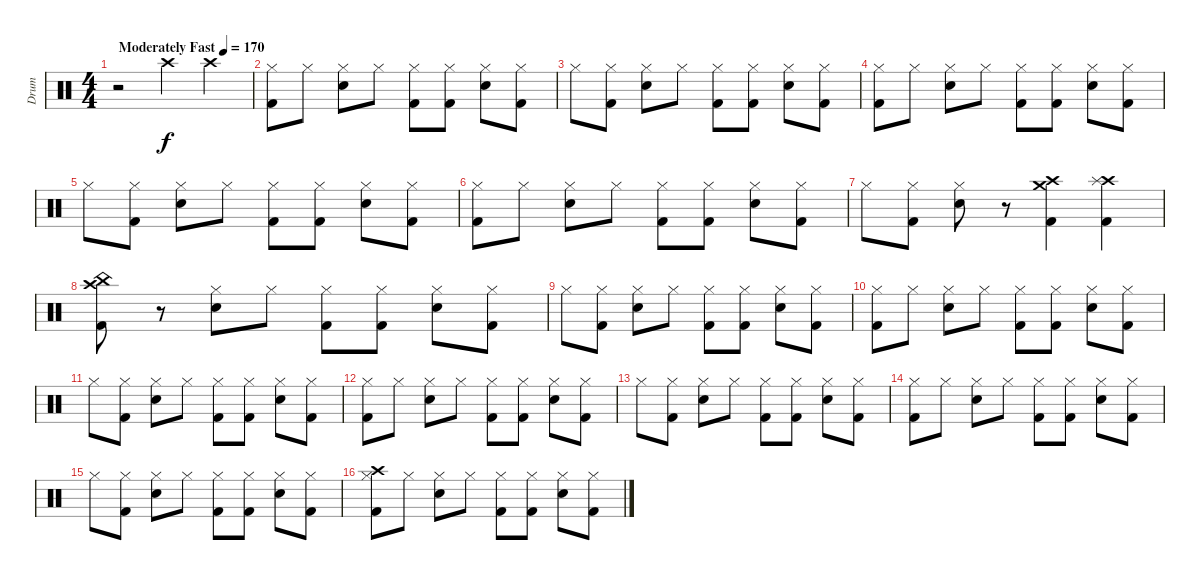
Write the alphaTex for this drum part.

\track ("Drum" "Drum") {instrument percussion}
\staff {score}
\articulation defaults
\ts (4 4)
\tempo (170 "Moderately Fast")
\clef neutral
\ks c
r.2{dy f} "Crash high (hit)".4 "Crash high (hit)".4 |
("Hi-Hat (closed)" "Kick (hit) 2").8 "Hi-Hat (closed)".8 ("Hi-Hat (closed)" "Electric Snare (hit)").8 "Hi-Hat (closed)".8 ("Hi-Hat (closed)" "Kick (hit) 2").8 ("Hi-Hat (closed)" "Kick (hit) 2").8 ("Hi-Hat (closed)" "Electric Snare (hit)").8 ("Hi-Hat (closed)" "Kick (hit) 2").8 |
"Hi-Hat (closed)".8 ("Hi-Hat (closed)" "Kick (hit) 2").8 ("Hi-Hat (closed)" "Electric Snare (hit)").8 "Hi-Hat (closed)".8 ("Hi-Hat (closed)" "Kick (hit) 2").8 ("Hi-Hat (closed)" "Kick (hit) 2").8 ("Hi-Hat (closed)" "Electric Snare (hit)").8 ("Hi-Hat (closed)" "Kick (hit) 2").8 |
("Hi-Hat (closed)" "Kick (hit) 2").8 "Hi-Hat (closed)".8 ("Hi-Hat (closed)" "Electric Snare (hit)").8 "Hi-Hat (closed)".8 ("Hi-Hat (closed)" "Kick (hit) 2").8 ("Hi-Hat (closed)" "Kick (hit) 2").8 ("Hi-Hat (closed)" "Electric Snare (hit)").8 ("Hi-Hat (closed)" "Kick (hit) 2").8 |
"Hi-Hat (closed)".8 ("Hi-Hat (closed)" "Kick (hit) 2").8 ("Hi-Hat (closed)" "Electric Snare (hit)").8 "Hi-Hat (closed)".8 ("Hi-Hat (closed)" "Kick (hit) 2").8 ("Hi-Hat (closed)" "Kick (hit) 2").8 ("Hi-Hat (closed)" "Electric Snare (hit)").8 ("Hi-Hat (closed)" "Kick (hit) 2").8 |
("Hi-Hat (closed)" "Kick (hit) 2").8 "Hi-Hat (closed)".8 ("Hi-Hat (closed)" "Electric Snare (hit)").8 "Hi-Hat (closed)".8 ("Hi-Hat (closed)" "Kick (hit) 2").8 ("Hi-Hat (closed)" "Kick (hit) 2").8 ("Hi-Hat (closed)" "Electric Snare (hit)").8 ("Hi-Hat (closed)" "Kick (hit) 2").8 |
"Hi-Hat (closed)".8 ("Hi-Hat (closed)" "Kick (hit) 2").8 ("Hi-Hat (closed)" "Electric Snare (hit)").8 r.8 ("Crash high (hit)" "Crash medium (hit)" "Kick (hit) 2").4 ("Crash high (hit)" "Splash (hit)" "Kick (hit) 2").4 |
("Crash high (hit)" "China (hit)" "Kick (hit) 2").8 r.8 ("Hi-Hat (closed)" "Electric Snare (hit)").8 "Hi-Hat (closed)".8 ("Hi-Hat (closed)" "Kick (hit) 2").8 ("Hi-Hat (closed)" "Kick (hit) 2").8 ("Hi-Hat (closed)" "Electric Snare (hit)").8 ("Hi-Hat (closed)" "Kick (hit) 2").8 |
"Hi-Hat (closed)".8 ("Hi-Hat (closed)" "Kick (hit) 2").8 ("Hi-Hat (closed)" "Electric Snare (hit)").8 "Hi-Hat (closed)".8 ("Hi-Hat (closed)" "Kick (hit) 2").8 ("Hi-Hat (closed)" "Kick (hit) 2").8 ("Hi-Hat (closed)" "Electric Snare (hit)").8 ("Hi-Hat (closed)" "Kick (hit) 2").8 |
("Hi-Hat (closed)" "Kick (hit) 2").8 "Hi-Hat (closed)".8 ("Hi-Hat (closed)" "Electric Snare (hit)").8 "Hi-Hat (closed)".8 ("Hi-Hat (closed)" "Kick (hit) 2").8 ("Hi-Hat (closed)" "Kick (hit) 2").8 ("Hi-Hat (closed)" "Electric Snare (hit)").8 ("Hi-Hat (closed)" "Kick (hit) 2").8 |
"Hi-Hat (closed)".8 ("Hi-Hat (closed)" "Kick (hit) 2").8 ("Hi-Hat (closed)" "Electric Snare (hit)").8 "Hi-Hat (closed)".8 ("Hi-Hat (closed)" "Kick (hit) 2").8 ("Hi-Hat (closed)" "Kick (hit) 2").8 ("Hi-Hat (closed)" "Electric Snare (hit)").8 ("Hi-Hat (closed)" "Kick (hit) 2").8 |
("Hi-Hat (closed)" "Kick (hit) 2").8 "Hi-Hat (closed)".8 ("Hi-Hat (closed)" "Electric Snare (hit)").8 "Hi-Hat (closed)".8 ("Hi-Hat (closed)" "Kick (hit) 2").8 ("Hi-Hat (closed)" "Kick (hit) 2").8 ("Hi-Hat (closed)" "Electric Snare (hit)").8 ("Hi-Hat (closed)" "Kick (hit) 2").8 |
"Hi-Hat (closed)".8 ("Hi-Hat (closed)" "Kick (hit) 2").8 ("Hi-Hat (closed)" "Electric Snare (hit)").8 "Hi-Hat (closed)".8 ("Hi-Hat (closed)" "Kick (hit) 2").8 ("Hi-Hat (closed)" "Kick (hit) 2").8 ("Hi-Hat (closed)" "Electric Snare (hit)").8 ("Hi-Hat (closed)" "Kick (hit) 2").8 |
("Hi-Hat (closed)" "Kick (hit) 2").8 "Hi-Hat (closed)".8 ("Hi-Hat (closed)" "Electric Snare (hit)").8 "Hi-Hat (closed)".8 ("Hi-Hat (closed)" "Kick (hit) 2").8 ("Hi-Hat (closed)" "Kick (hit) 2").8 ("Hi-Hat (closed)" "Electric Snare (hit)").8 ("Hi-Hat (closed)" "Kick (hit) 2").8 |
"Hi-Hat (closed)".8 ("Hi-Hat (closed)" "Kick (hit) 2").8 ("Hi-Hat (closed)" "Electric Snare (hit)").8 "Hi-Hat (closed)".8 ("Hi-Hat (closed)" "Kick (hit) 2").8 ("Hi-Hat (closed)" "Kick (hit) 2").8 ("Hi-Hat (closed)" "Electric Snare (hit)").8 ("Hi-Hat (closed)" "Kick (hit) 2").8 |
("Crash high (hit)" "Hi-Hat (closed)" "Kick (hit) 2").8 "Hi-Hat (closed)".8 ("Hi-Hat (closed)" "Electric Snare (hit)").8 "Hi-Hat (closed)".8 ("Hi-Hat (closed)" "Kick (hit) 2").8 ("Hi-Hat (closed)" "Kick (hit) 2").8 ("Hi-Hat (closed)" "Electric Snare (hit)").8 ("Hi-Hat (closed)" "Kick (hit) 2").8
